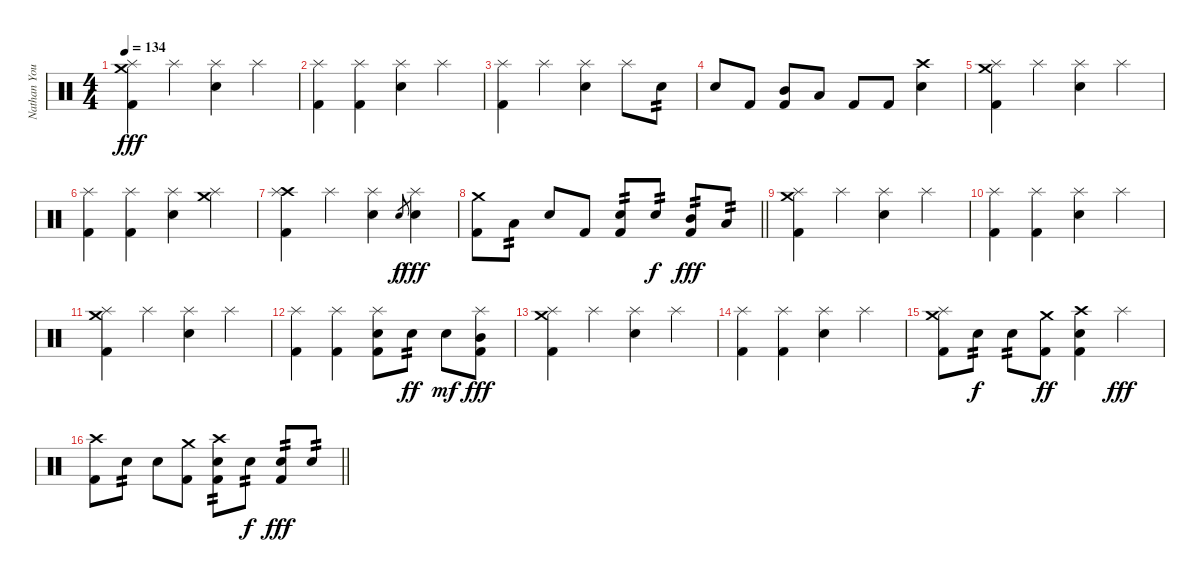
\track ("Nathan Young" "Nathan You") {instrument percussion}
\staff {score}
\articulation defaults
\ts (4 4)
\tempo 134
\clef neutral
\ks c
("Crash medium (hit)" "Splash (hit)" "Kick (hit) 2").4{dy fff} "Splash (hit)".4 ("Splash (hit)" "Electric Snare (hit)").4 "Splash (hit)".4 |
("Splash (hit)" "Kick (hit) 2").4 ("Splash (hit)" "Kick (hit) 2").4 ("Splash (hit)" "Electric Snare (hit)").4 "Splash (hit)".4 |
("Splash (hit)" "Kick (hit) 2").4 "Splash (hit)".4 ("Splash (hit)" "Electric Snare (hit)").4 "Splash (hit)".8 "Electric Snare (hit)".8{tp 2} |
"Electric Snare (hit)".8 "Kick (hit) 2".8 ("Mid Tom (hit)" "Kick (hit) 2").8 "Low Tom (hit)".8 "Kick (hit) 2".8 "Kick (hit) 2".8 ("Crash high (hit)" "Snare (hit) 2").4 |
("Crash medium (hit)" "Splash (hit)" "Kick (hit) 2").4 "Splash (hit)".4 ("Splash (hit)" "Electric Snare (hit)").4 "Splash (hit)".4 |
("Splash (hit)" "Kick (hit) 2").4 ("Splash (hit)" "Kick (hit) 2").4 ("Splash (hit)" "Electric Snare (hit)").4 ("Crash medium (hit)" "Splash (hit)").4 |
("Crash high (hit)" "Splash (hit)" "Kick (hit) 2").4 "Splash (hit)".4 ("Splash (hit)" "Electric Snare (hit)").4 "Electric Snare (hit)".8{gr dy f} ("Splash (hit)" "Electric Snare (hit)").4{dy fff} |
\barLineRight lightlight
("Crash medium (hit)" "Kick (hit) 2").8 "Low Tom (hit)".8{tp 2} "Electric Snare (hit)".8 "Kick (hit) 2".8 ("Electric Snare (hit)" "Kick (hit) 2").8{tp 2} "Electric Snare (hit)".8{tp 2 dy f} ("Mid Tom (hit)" "Kick (hit) 2").8{tp 2 dy fff} "Low Tom (hit)".8{tp 2} |
("Crash medium (hit)" "Splash (hit)" "Kick (hit) 2").4 "Splash (hit)".4 ("Splash (hit)" "Electric Snare (hit)").4 "Splash (hit)".4 |
("Splash (hit)" "Kick (hit) 2").4 ("Splash (hit)" "Kick (hit) 2").4 ("Splash (hit)" "Electric Snare (hit)").4 "Splash (hit)".4 |
("Crash medium (hit)" "Splash (hit)" "Kick (hit) 2").4 "Splash (hit)".4 ("Splash (hit)" "Electric Snare (hit)").4 "Splash (hit)".4 |
("Splash (hit)" "Kick (hit) 2").4 ("Splash (hit)" "Kick (hit) 2").4 ("Splash (hit)" "Electric Snare (hit)" "Kick (hit) 2").8 "Electric Snare (hit)".8{tp 2 dy ff} "Electric Snare (hit)".8{dy mf} ("Splash (hit)" "Mid Tom (hit)" "Kick (hit) 2").8{dy fff} |
("Crash medium (hit)" "Splash (hit)" "Kick (hit) 2").4 "Splash (hit)".4 ("Splash (hit)" "Electric Snare (hit)").4 "Splash (hit)".4 |
("Splash (hit)" "Kick (hit) 2").4 ("Splash (hit)" "Kick (hit) 2").4 ("Splash (hit)" "Electric Snare (hit)").4 "Splash (hit)".4 |
("Crash medium (hit)" "Splash (hit)" "Kick (hit) 2").8 "Electric Snare (hit)".8{tp 2 dy f} "Electric Snare (hit)".8{tp 2} ("Crash medium (hit)" "Kick (hit) 2").8{dy ff} ("Crash high (hit)" "Electric Snare (hit)" "Kick (hit) 2").4 "Splash (hit)".4{dy fff} |
\barLineRight lightlight
("Crash high (hit)" "Kick (hit) 2").8 "Electric Snare (hit)".8{tp 2} "Electric Snare (hit)".8 ("Crash medium (hit)" "Kick (hit) 2").8 ("Crash high (hit)" "Electric Snare (hit)" "Kick (hit) 2").8{tp 2} "Electric Snare (hit)".8{tp 2 dy f} ("Electric Snare (hit)" "Kick (hit) 2").8{tp 2 dy fff} "Electric Snare (hit)".8{tp 2}
